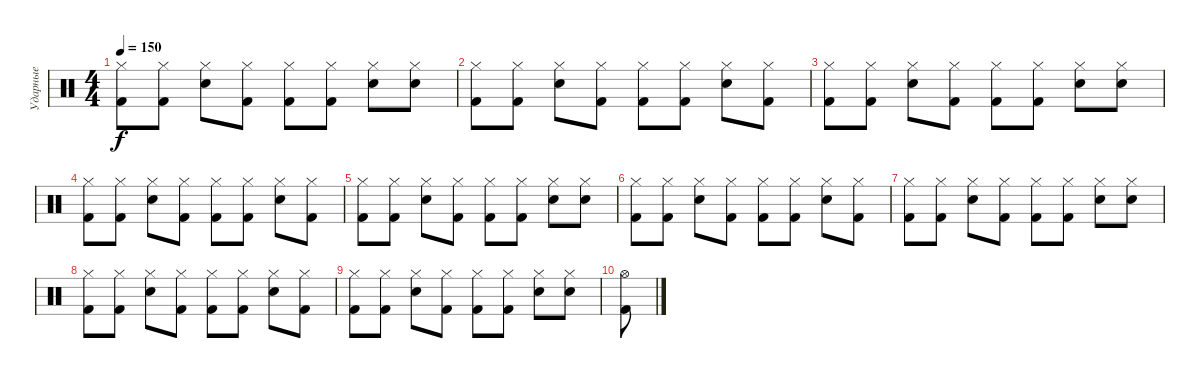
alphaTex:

\track ("Ударные" "Ударные") {instrument percussion}
\staff {score}
\articulation defaults
\ts (4 4)
\tempo 150
\clef neutral
\ks c
("Hi-Hat (closed)" "Kick (hit) 2").8{dy f} ("Hi-Hat (closed)" "Kick (hit) 2").8 ("Hi-Hat (closed)" "Snare (hit) 2").8 ("Hi-Hat (closed)" "Kick (hit) 2").8 ("Hi-Hat (closed)" "Kick (hit) 2").8 ("Hi-Hat (closed)" "Kick (hit) 2").8 ("Hi-Hat (closed)" "Snare (hit) 2").8 ("Hi-Hat (closed)" "Snare (hit) 2").8 |
("Hi-Hat (closed)" "Kick (hit) 2").8 ("Hi-Hat (closed)" "Kick (hit) 2").8 ("Hi-Hat (closed)" "Snare (hit) 2").8 ("Hi-Hat (closed)" "Kick (hit) 2").8 ("Hi-Hat (closed)" "Kick (hit) 2").8 ("Hi-Hat (closed)" "Kick (hit) 2").8 ("Hi-Hat (closed)" "Snare (hit) 2").8 ("Hi-Hat (closed)" "Kick (hit) 2").8 |
("Hi-Hat (closed)" "Kick (hit) 2").8 ("Hi-Hat (closed)" "Kick (hit) 2").8 ("Hi-Hat (closed)" "Snare (hit) 2").8 ("Hi-Hat (closed)" "Kick (hit) 2").8 ("Hi-Hat (closed)" "Kick (hit) 2").8 ("Hi-Hat (closed)" "Kick (hit) 2").8 ("Hi-Hat (closed)" "Snare (hit) 2").8 ("Hi-Hat (closed)" "Snare (hit) 2").8 |
("Hi-Hat (closed)" "Kick (hit) 2").8 ("Hi-Hat (closed)" "Kick (hit) 2").8 ("Hi-Hat (closed)" "Snare (hit) 2").8 ("Hi-Hat (closed)" "Kick (hit) 2").8 ("Hi-Hat (closed)" "Kick (hit) 2").8 ("Hi-Hat (closed)" "Kick (hit) 2").8 ("Hi-Hat (closed)" "Snare (hit) 2").8 ("Hi-Hat (closed)" "Kick (hit) 2").8 |
("Hi-Hat (closed)" "Kick (hit) 2").8 ("Hi-Hat (closed)" "Kick (hit) 2").8 ("Hi-Hat (closed)" "Snare (hit) 2").8 ("Hi-Hat (closed)" "Kick (hit) 2").8 ("Hi-Hat (closed)" "Kick (hit) 2").8 ("Hi-Hat (closed)" "Kick (hit) 2").8 ("Hi-Hat (closed)" "Snare (hit) 2").8 ("Hi-Hat (closed)" "Snare (hit) 2").8 |
("Hi-Hat (closed)" "Kick (hit) 2").8 ("Hi-Hat (closed)" "Kick (hit) 2").8 ("Hi-Hat (closed)" "Snare (hit) 2").8 ("Hi-Hat (closed)" "Kick (hit) 2").8 ("Hi-Hat (closed)" "Kick (hit) 2").8 ("Hi-Hat (closed)" "Kick (hit) 2").8 ("Hi-Hat (closed)" "Snare (hit) 2").8 ("Hi-Hat (closed)" "Kick (hit) 2").8 |
("Hi-Hat (closed)" "Kick (hit) 2").8 ("Hi-Hat (closed)" "Kick (hit) 2").8 ("Hi-Hat (closed)" "Snare (hit) 2").8 ("Hi-Hat (closed)" "Kick (hit) 2").8 ("Hi-Hat (closed)" "Kick (hit) 2").8 ("Hi-Hat (closed)" "Kick (hit) 2").8 ("Hi-Hat (closed)" "Snare (hit) 2").8 ("Hi-Hat (closed)" "Snare (hit) 2").8 |
("Hi-Hat (closed)" "Kick (hit) 2").8 ("Hi-Hat (closed)" "Kick (hit) 2").8 ("Hi-Hat (closed)" "Snare (hit) 2").8 ("Hi-Hat (closed)" "Kick (hit) 2").8 ("Hi-Hat (closed)" "Kick (hit) 2").8 ("Hi-Hat (closed)" "Kick (hit) 2").8 ("Hi-Hat (closed)" "Snare (hit) 2").8 ("Hi-Hat (closed)" "Kick (hit) 2").8 |
("Hi-Hat (closed)" "Kick (hit) 2").8 ("Hi-Hat (closed)" "Kick (hit) 2").8 ("Hi-Hat (closed)" "Snare (hit) 2").8 ("Hi-Hat (closed)" "Kick (hit) 2").8 ("Hi-Hat (closed)" "Kick (hit) 2").8 ("Hi-Hat (closed)" "Kick (hit) 2").8 ("Hi-Hat (closed)" "Snare (hit) 2").8 ("Hi-Hat (closed)" "Snare (hit) 2").8 |
("Hi-Hat (open)" "Kick (hit) 2").8
